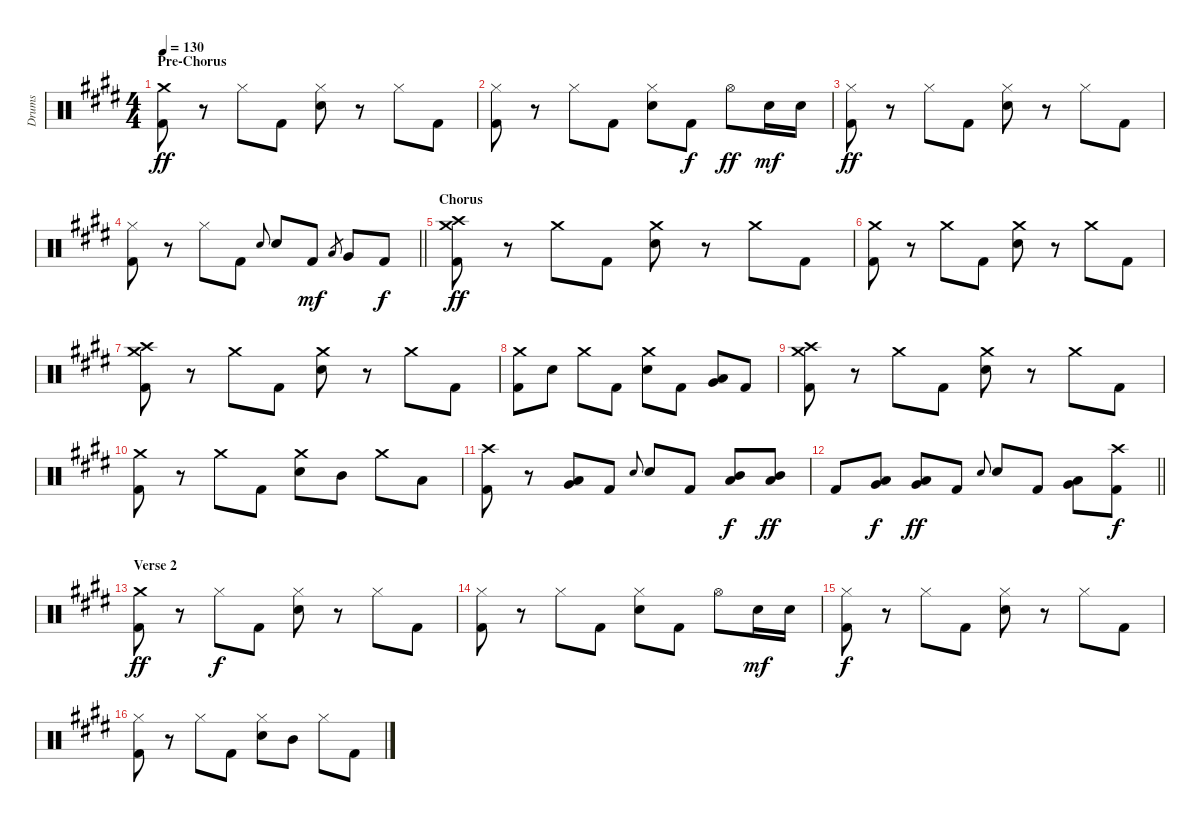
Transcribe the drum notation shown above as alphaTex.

\track ("Drums" "Drums") {instrument percussion}
\staff {score}
\articulation defaults
\ts (4 4)
\section ("" "Pre-Chorus")
\tempo 130
\clef neutral
\ks c#minor
("Crash medium (hit)" "Kick (hit) 2").8{dy ff} r.8 "Hi-Hat (closed)".8 "Kick (hit) 2".8 ("Hi-Hat (closed)" "Electric Snare (hit)").8 r.8 "Hi-Hat (closed)".8 "Kick (hit) 2".8 |
("Hi-Hat (closed)" "Kick (hit) 2").8 r.8 "Hi-Hat (closed)".8 "Kick (hit) 2".8 ("Hi-Hat (closed)" "Electric Snare (hit)").8 "Kick (hit) 2".8{dy f} "Hi-Hat (open)".8{dy ff} "Electric Snare (hit)".16{dy mf} "Electric Snare (hit)".16 |
("Hi-Hat (closed)" "Kick (hit) 2").8{dy ff} r.8 "Hi-Hat (closed)".8 "Kick (hit) 2".8 ("Hi-Hat (closed)" "Electric Snare (hit)").8 r.8 "Hi-Hat (closed)".8 "Kick (hit) 2".8 |
\barLineRight lightlight
("Hi-Hat (closed)" "Kick (hit) 2").8 r.8 "Hi-Hat (closed)".8 "Kick (hit) 2".8 "Electric Snare (hit)".8{gr onbeat} "Electric Snare (hit)".8 "Kick (hit) 2".8{dy mf} "Low Floor Tom (hit)".8{gr} "Very Low Tom (hit)".8 "Kick (hit) 2".8{dy f} |
\section ("" "Chorus")
("Crash medium (hit)" "Crash high (hit)" "Kick (hit) 2").8{dy ff} r.8 "Crash medium (hit)".8 "Kick (hit) 2".8 ("Crash medium (hit)" "Electric Snare (hit)").8 r.8 "Crash medium (hit)".8 "Kick (hit) 2".8 |
("Crash medium (hit)" "Kick (hit) 2").8 r.8 "Crash medium (hit)".8 "Kick (hit) 2".8 ("Crash medium (hit)" "Electric Snare (hit)").8 r.8 "Crash medium (hit)".8 "Kick (hit) 2".8 |
("Crash medium (hit)" "Crash high (hit)" "Kick (hit) 2").8 r.8 "Crash medium (hit)".8 "Kick (hit) 2".8 ("Crash medium (hit)" "Electric Snare (hit)").8 r.8 "Crash medium (hit)".8 "Kick (hit) 2".8 |
("Crash medium (hit)" "Kick (hit) 2").8 "Electric Snare (hit)".8 "Crash medium (hit)".8 "Kick (hit) 2".8 ("Crash medium (hit)" "Electric Snare (hit)").8 "Kick (hit) 2".8 ("Very Low Tom (hit)" "Low Floor Tom (hit)").8 "Kick (hit) 2".8 |
("Crash medium (hit)" "Crash high (hit)" "Kick (hit) 2").8 r.8 "Crash medium (hit)".8 "Kick (hit) 2".8 ("Crash medium (hit)" "Electric Snare (hit)").8 r.8 "Crash medium (hit)".8 "Kick (hit) 2".8 |
("Crash medium (hit)" "Kick (hit) 2").8 r.8 "Crash medium (hit)".8 "Kick (hit) 2".8 ("Crash medium (hit)" "Electric Snare (hit)").8 "Mid Tom (hit)".8 "Crash medium (hit)".8 "Low Tom (hit)".8 |
("Crash high (hit)" "Kick (hit) 2").8 r.8 ("Low Tom (hit)" "Very Low Tom (hit)").8 "Kick (hit) 2".8 "Electric Snare (hit)".8{gr onbeat} "Electric Snare (hit)".8 "Kick (hit) 2".8 ("Mid Tom (hit)" "Low Tom (hit)").8{dy f} ("Mid Tom (hit)" "Low Tom (hit)").8{dy ff} |
\barLineRight lightlight "Kick (hit) 2".8
("Very Low Tom (hit)" "Low Floor Tom (hit)").8{dy f} ("Very Low Tom (hit)" "Low Floor Tom (hit)").8{dy ff} "Kick (hit) 2".8 "Electric Snare (hit)".8{gr onbeat} "Electric Snare (hit)".8 "Kick (hit) 2".8 ("Very Low Tom (hit)" "Low Floor Tom (hit)").8 ("Crash high (hit)" "Kick (hit) 2").8{dy f} |
\section ("" "Verse 2")
("Crash medium (hit)" "Kick (hit) 2").8{dy ff} r.8 "Hi-Hat (closed)".8{dy f} "Kick (hit) 2".8 ("Hi-Hat (closed)" "Electric Snare (hit)").8 r.8 "Hi-Hat (closed)".8 "Kick (hit) 2".8 |
("Hi-Hat (closed)" "Kick (hit) 2").8 r.8 "Hi-Hat (closed)".8 "Kick (hit) 2".8 ("Hi-Hat (closed)" "Electric Snare (hit)").8 "Kick (hit) 2".8 "Hi-Hat (open)".8 "Electric Snare (hit)".16{dy mf} "Electric Snare (hit)".16 |
("Hi-Hat (closed)" "Kick (hit) 2").8{dy f} r.8 "Hi-Hat (closed)".8 "Kick (hit) 2".8 ("Hi-Hat (closed)" "Electric Snare (hit)").8 r.8 "Hi-Hat (closed)".8 "Kick (hit) 2".8 |
("Hi-Hat (closed)" "Kick (hit) 2").8 r.8 "Hi-Hat (closed)".8 "Kick (hit) 2".8 ("Hi-Hat (closed)" "Electric Snare (hit)").8 "Mid Tom (hit)".8 "Hi-Hat (closed)".8 "Kick (hit) 2".8
